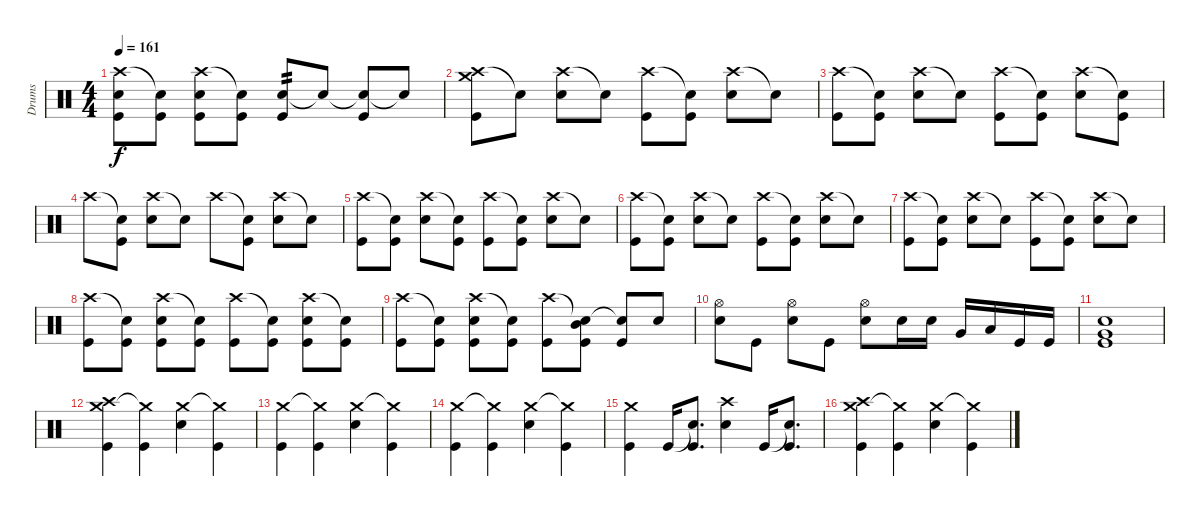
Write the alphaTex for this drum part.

\track ("Drums" "Drums") {instrument percussion}
\staff {score}
\articulation defaults
\ts (4 4)
\tempo 161
\clef neutral
\ks c
("Crash high (hit)" "Snare (hit) 2" "Kick (hit)").8{dy f} ("Snare (hit)"{t} "Kick (hit)").8 ("Crash high (hit)" "Snare (hit) 2" "Kick (hit)").8 ("Snare (hit)"{t} "Kick (hit)").8 ("Snare (hit) 2" "Kick (hit)").8{tp 2} "Snare (hit)"{t}.8 ("Snare (hit)"{t} "Kick (hit)").8 "Snare (hit)"{t}.8 |
("Crash high (hit)" "Crash medium (hit)" "Kick (hit)").8 "Snare (hit)"{t}.8 ("Crash high (hit)" "Snare (hit) 2").8 "Snare (hit)"{t}.8 ("Crash high (hit)" "Kick (hit)").8 ("Snare (hit)"{t} "Kick (hit)").8 ("Crash high (hit)" "Snare (hit) 2").8 "Snare (hit)"{t}.8 |
("Crash high (hit)" "Kick (hit)").8 ("Snare (hit)"{t} "Kick (hit)").8 ("Crash high (hit)" "Snare (hit) 2").8 "Snare (hit)"{t}.8 ("Crash high (hit)" "Kick (hit)").8 ("Snare (hit)"{t} "Kick (hit)").8 ("Crash high (hit)" "Snare (hit) 2").8 ("Snare (hit)"{t} "Kick (hit)").8 |
"Crash high (hit)".8 ("Snare (hit)"{t} "Kick (hit)").8 ("Crash high (hit)" "Snare (hit) 2").8 "Snare (hit)"{t}.8 "Crash high (hit)".8 ("Snare (hit)"{t} "Kick (hit)").8 ("Crash high (hit)" "Snare (hit) 2").8 "Snare (hit)"{t}.8 |
("Crash high (hit)" "Kick (hit)").8 ("Snare (hit)"{t} "Kick (hit)").8 ("Crash high (hit)" "Snare (hit) 2").8 ("Snare (hit)"{t} "Kick (hit)").8 ("Crash high (hit)" "Kick (hit)").8 ("Snare (hit)"{t} "Kick (hit)").8 ("Crash high (hit)" "Snare (hit) 2").8 "Snare (hit)"{t}.8 |
("Crash high (hit)" "Kick (hit)").8 ("Snare (hit)"{t} "Kick (hit)").8 ("Crash high (hit)" "Snare (hit) 2").8 "Snare (hit)"{t}.8 ("Crash high (hit)" "Kick (hit)").8 ("Snare (hit)"{t} "Kick (hit)").8 ("Crash high (hit)" "Snare (hit) 2").8 "Snare (hit)"{t}.8 |
("Crash high (hit)" "Kick (hit)").8 ("Snare (hit)"{t} "Kick (hit)").8 ("Crash high (hit)" "Snare (hit) 2").8 "Snare (hit)"{t}.8 ("Crash high (hit)" "Kick (hit)").8 ("Snare (hit)"{t} "Kick (hit)").8 ("Crash high (hit)" "Snare (hit) 2").8 "Snare (hit)"{t}.8 |
("Crash high (hit)" "Kick (hit)").8 ("Snare (hit)"{t} "Kick (hit)").8 ("Crash high (hit)" "Snare (hit) 2" "Kick (hit)").8 ("Snare (hit)"{t} "Kick (hit)").8 ("Crash high (hit)" "Kick (hit)").8 ("Snare (hit)"{t} "Kick (hit)").8 ("Crash high (hit)" "Snare (hit) 2" "Kick (hit)").8 ("Snare (hit)"{t} "Kick (hit)").8 |
("Crash high (hit)" "Kick (hit)").8 ("Snare (hit)"{t} "Kick (hit)").8 ("Crash high (hit)" "Snare (hit) 2" "Kick (hit)").8 ("Snare (hit)"{t} "Kick (hit)").8 ("Crash high (hit)" "Kick (hit)").8 ("Snare (hit)"{t} "Mid Tom (hit)" "Kick (hit)").8 ("Snare (hit)"{t} "Kick (hit)").8 "Snare (hit) 2".8 |
("Hi-Hat (open)" "Snare (hit) 2").8 "Kick (hit)".8 ("Hi-Hat (open)" "Snare (hit) 2").8 "Kick (hit)".8 ("Hi-Hat (open)" "Snare (hit) 2").8 "Snare (hit) 2".16 "Snare (hit) 2".16 "Very Low Tom (hit)".16 "Low Tom (hit)".16 "Kick (hit)".16 "Kick (hit)".16 |
("Very Low Tom (hit)" "Snare (hit) 2" "Kick (hit)").1 |
("Crash medium (hit)" "Crash high (hit)" "Kick (hit)").4 ("Crash medium (hit)"{t} "Kick (hit)").4 ("Crash medium (hit)" "Snare (hit) 2").4 ("Crash medium (hit)"{t} "Kick (hit)").4 |
("Crash medium (hit)" "Kick (hit)").4 ("Crash medium (hit)"{t} "Kick (hit)").4 ("Crash medium (hit)" "Snare (hit) 2").4 ("Crash medium (hit)"{t} "Kick (hit)").4 |
("Crash medium (hit)" "Kick (hit)").4 ("Crash medium (hit)"{t} "Kick (hit)").4 ("Crash medium (hit)" "Snare (hit) 2").4 ("Crash medium (hit)"{t} "Kick (hit)").4 |
("Crash medium (hit)" "Kick (hit)").4 "Kick (hit)".16 ("Snare (hit)"{t} "Kick (hit)").8{d} ("Crash high (hit)" "Snare (hit) 2").4 "Kick (hit)".16 ("Snare (hit)"{t} "Kick (hit)").8{d} |
("Crash medium (hit)" "Crash high (hit)" "Kick (hit)").4 ("Crash medium (hit)"{t} "Kick (hit)").4 ("Crash medium (hit)" "Snare (hit) 2").4 ("Crash medium (hit)"{t} "Kick (hit)").4
